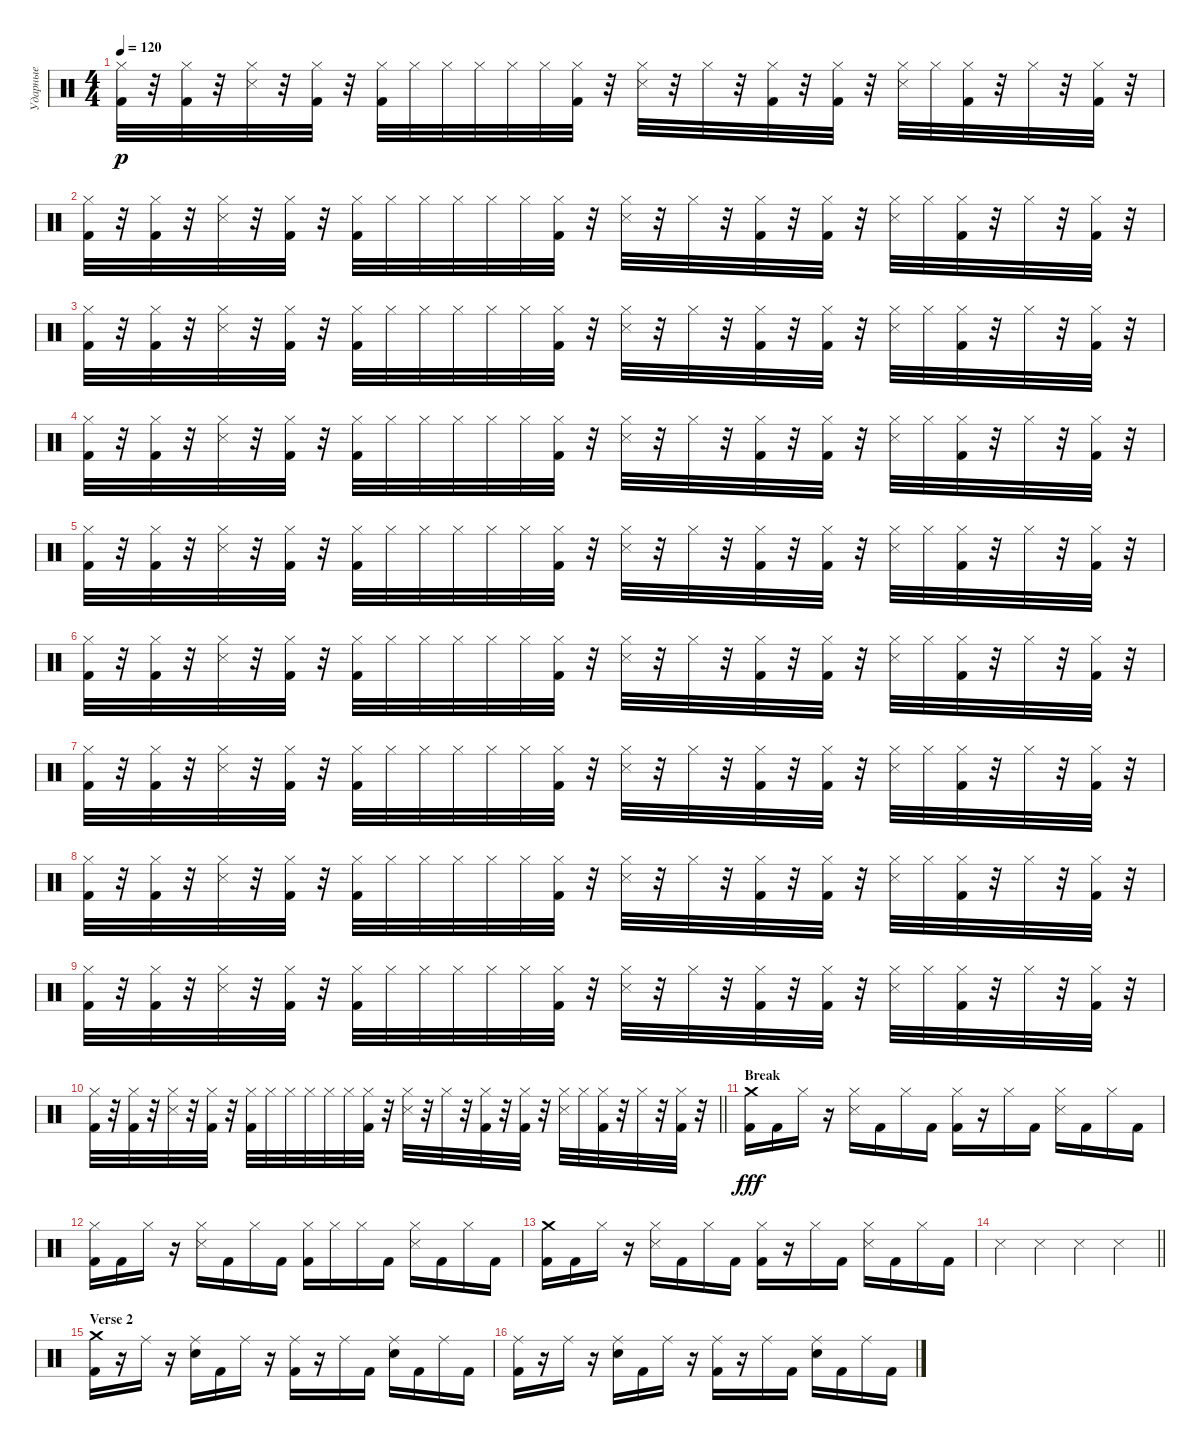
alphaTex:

\track ("Ударные" "Ударные") {instrument percussion}
\staff {score}
\articulation defaults
\ts (4 4)
\tempo 120
\clef neutral
\ks c
("Hi-Hat (closed)" "Kick (hit) 2").32{dy p} r.32 ("Hi-Hat (closed)" "Kick (hit) 2").32 r.32 ("Hi-Hat (closed)" "Metronome (hit)").32 r.32 ("Hi-Hat (closed)" "Kick (hit) 2").32 r.32 ("Hi-Hat (closed)" "Kick (hit) 2").32 "Hi-Hat (closed)".32 "Hi-Hat (closed)".32 "Hi-Hat (closed)".32 "Hi-Hat (closed)".32 "Hi-Hat (closed)".32 ("Hi-Hat (closed)" "Kick (hit) 2").32 r.32 ("Hi-Hat (closed)" "Metronome (hit)").32 r.32 "Hi-Hat (closed)".32 r.32 ("Hi-Hat (closed)" "Kick (hit) 2").32 r.32 ("Hi-Hat (closed)" "Kick (hit) 2").32 r.32 ("Hi-Hat (closed)" "Metronome (hit)").32 "Hi-Hat (closed)".32 ("Hi-Hat (closed)" "Kick (hit) 2").32 r.32 "Hi-Hat (closed)".32 r.32 ("Hi-Hat (closed)" "Kick (hit) 2").32 r.32 |
("Hi-Hat (closed)" "Kick (hit) 2").32 r.32 ("Hi-Hat (closed)" "Kick (hit) 2").32 r.32 ("Hi-Hat (closed)" "Metronome (hit)").32 r.32 ("Hi-Hat (closed)" "Kick (hit) 2").32 r.32 ("Hi-Hat (closed)" "Kick (hit) 2").32 "Hi-Hat (closed)".32 "Hi-Hat (closed)".32 "Hi-Hat (closed)".32 "Hi-Hat (closed)".32 "Hi-Hat (closed)".32 ("Hi-Hat (closed)" "Kick (hit) 2").32 r.32 ("Hi-Hat (closed)" "Metronome (hit)").32 r.32 "Hi-Hat (closed)".32 r.32 ("Hi-Hat (closed)" "Kick (hit) 2").32 r.32 ("Hi-Hat (closed)" "Kick (hit) 2").32 r.32 ("Hi-Hat (closed)" "Metronome (hit)").32 "Hi-Hat (closed)".32 ("Hi-Hat (closed)" "Kick (hit) 2").32 r.32 "Hi-Hat (closed)".32 r.32 ("Hi-Hat (closed)" "Kick (hit) 2").32 r.32 |
("Hi-Hat (closed)" "Kick (hit) 2").32 r.32 ("Hi-Hat (closed)" "Kick (hit) 2").32 r.32 ("Hi-Hat (closed)" "Metronome (hit)").32 r.32 ("Hi-Hat (closed)" "Kick (hit) 2").32 r.32 ("Hi-Hat (closed)" "Kick (hit) 2").32 "Hi-Hat (closed)".32 "Hi-Hat (closed)".32 "Hi-Hat (closed)".32 "Hi-Hat (closed)".32 "Hi-Hat (closed)".32 ("Hi-Hat (closed)" "Kick (hit) 2").32 r.32 ("Hi-Hat (closed)" "Metronome (hit)").32 r.32 "Hi-Hat (closed)".32 r.32 ("Hi-Hat (closed)" "Kick (hit) 2").32 r.32 ("Hi-Hat (closed)" "Kick (hit) 2").32 r.32 ("Hi-Hat (closed)" "Metronome (hit)").32 "Hi-Hat (closed)".32 ("Hi-Hat (closed)" "Kick (hit) 2").32 r.32 "Hi-Hat (closed)".32 r.32 ("Hi-Hat (closed)" "Kick (hit) 2").32 r.32 |
("Hi-Hat (closed)" "Kick (hit) 2").32 r.32 ("Hi-Hat (closed)" "Kick (hit) 2").32 r.32 ("Hi-Hat (closed)" "Metronome (hit)").32 r.32 ("Hi-Hat (closed)" "Kick (hit) 2").32 r.32 ("Hi-Hat (closed)" "Kick (hit) 2").32 "Hi-Hat (closed)".32 "Hi-Hat (closed)".32 "Hi-Hat (closed)".32 "Hi-Hat (closed)".32 "Hi-Hat (closed)".32 ("Hi-Hat (closed)" "Kick (hit) 2").32 r.32 ("Hi-Hat (closed)" "Metronome (hit)").32 r.32 "Hi-Hat (closed)".32 r.32 ("Hi-Hat (closed)" "Kick (hit) 2").32 r.32 ("Hi-Hat (closed)" "Kick (hit) 2").32 r.32 ("Hi-Hat (closed)" "Metronome (hit)").32 "Hi-Hat (closed)".32 ("Hi-Hat (closed)" "Kick (hit) 2").32 r.32 "Hi-Hat (closed)".32 r.32 ("Hi-Hat (closed)" "Kick (hit) 2").32 r.32 |
("Hi-Hat (closed)" "Kick (hit) 2").32 r.32 ("Hi-Hat (closed)" "Kick (hit) 2").32 r.32 ("Hi-Hat (closed)" "Metronome (hit)").32 r.32 ("Hi-Hat (closed)" "Kick (hit) 2").32 r.32 ("Hi-Hat (closed)" "Kick (hit) 2").32 "Hi-Hat (closed)".32 "Hi-Hat (closed)".32 "Hi-Hat (closed)".32 "Hi-Hat (closed)".32 "Hi-Hat (closed)".32 ("Hi-Hat (closed)" "Kick (hit) 2").32 r.32 ("Hi-Hat (closed)" "Metronome (hit)").32 r.32 "Hi-Hat (closed)".32 r.32 ("Hi-Hat (closed)" "Kick (hit) 2").32 r.32 ("Hi-Hat (closed)" "Kick (hit) 2").32 r.32 ("Hi-Hat (closed)" "Metronome (hit)").32 "Hi-Hat (closed)".32 ("Hi-Hat (closed)" "Kick (hit) 2").32 r.32 "Hi-Hat (closed)".32 r.32 ("Hi-Hat (closed)" "Kick (hit) 2").32 r.32 |
("Hi-Hat (closed)" "Kick (hit) 2").32 r.32 ("Hi-Hat (closed)" "Kick (hit) 2").32 r.32 ("Hi-Hat (closed)" "Metronome (hit)").32 r.32 ("Hi-Hat (closed)" "Kick (hit) 2").32 r.32 ("Hi-Hat (closed)" "Kick (hit) 2").32 "Hi-Hat (closed)".32 "Hi-Hat (closed)".32 "Hi-Hat (closed)".32 "Hi-Hat (closed)".32 "Hi-Hat (closed)".32 ("Hi-Hat (closed)" "Kick (hit) 2").32 r.32 ("Hi-Hat (closed)" "Metronome (hit)").32 r.32 "Hi-Hat (closed)".32 r.32 ("Hi-Hat (closed)" "Kick (hit) 2").32 r.32 ("Hi-Hat (closed)" "Kick (hit) 2").32 r.32 ("Hi-Hat (closed)" "Metronome (hit)").32 "Hi-Hat (closed)".32 ("Hi-Hat (closed)" "Kick (hit) 2").32 r.32 "Hi-Hat (closed)".32 r.32 ("Hi-Hat (closed)" "Kick (hit) 2").32 r.32 |
("Hi-Hat (closed)" "Kick (hit) 2").32 r.32 ("Hi-Hat (closed)" "Kick (hit) 2").32 r.32 ("Hi-Hat (closed)" "Metronome (hit)").32 r.32 ("Hi-Hat (closed)" "Kick (hit) 2").32 r.32 ("Hi-Hat (closed)" "Kick (hit) 2").32 "Hi-Hat (closed)".32 "Hi-Hat (closed)".32 "Hi-Hat (closed)".32 "Hi-Hat (closed)".32 "Hi-Hat (closed)".32 ("Hi-Hat (closed)" "Kick (hit) 2").32 r.32 ("Hi-Hat (closed)" "Metronome (hit)").32 r.32 "Hi-Hat (closed)".32 r.32 ("Hi-Hat (closed)" "Kick (hit) 2").32 r.32 ("Hi-Hat (closed)" "Kick (hit) 2").32 r.32 ("Hi-Hat (closed)" "Metronome (hit)").32 "Hi-Hat (closed)".32 ("Hi-Hat (closed)" "Kick (hit) 2").32 r.32 "Hi-Hat (closed)".32 r.32 ("Hi-Hat (closed)" "Kick (hit) 2").32 r.32 |
("Hi-Hat (closed)" "Kick (hit) 2").32 r.32 ("Hi-Hat (closed)" "Kick (hit) 2").32 r.32 ("Hi-Hat (closed)" "Metronome (hit)").32 r.32 ("Hi-Hat (closed)" "Kick (hit) 2").32 r.32 ("Hi-Hat (closed)" "Kick (hit) 2").32 "Hi-Hat (closed)".32 "Hi-Hat (closed)".32 "Hi-Hat (closed)".32 "Hi-Hat (closed)".32 "Hi-Hat (closed)".32 ("Hi-Hat (closed)" "Kick (hit) 2").32 r.32 ("Hi-Hat (closed)" "Metronome (hit)").32 r.32 "Hi-Hat (closed)".32 r.32 ("Hi-Hat (closed)" "Kick (hit) 2").32 r.32 ("Hi-Hat (closed)" "Kick (hit) 2").32 r.32 ("Hi-Hat (closed)" "Metronome (hit)").32 "Hi-Hat (closed)".32 ("Hi-Hat (closed)" "Kick (hit) 2").32 r.32 "Hi-Hat (closed)".32 r.32 ("Hi-Hat (closed)" "Kick (hit) 2").32 r.32 |
("Hi-Hat (closed)" "Kick (hit) 2").32 r.32 ("Hi-Hat (closed)" "Kick (hit) 2").32 r.32 ("Hi-Hat (closed)" "Metronome (hit)").32 r.32 ("Hi-Hat (closed)" "Kick (hit) 2").32 r.32 ("Hi-Hat (closed)" "Kick (hit) 2").32 "Hi-Hat (closed)".32 "Hi-Hat (closed)".32 "Hi-Hat (closed)".32 "Hi-Hat (closed)".32 "Hi-Hat (closed)".32 ("Hi-Hat (closed)" "Kick (hit) 2").32 r.32 ("Hi-Hat (closed)" "Metronome (hit)").32 r.32 "Hi-Hat (closed)".32 r.32 ("Hi-Hat (closed)" "Kick (hit) 2").32 r.32 ("Hi-Hat (closed)" "Kick (hit) 2").32 r.32 ("Hi-Hat (closed)" "Metronome (hit)").32 "Hi-Hat (closed)".32 ("Hi-Hat (closed)" "Kick (hit) 2").32 r.32 "Hi-Hat (closed)".32 r.32 ("Hi-Hat (closed)" "Kick (hit) 2").32 r.32 |
\barLineRight lightlight
("Hi-Hat (closed)" "Kick (hit) 2").32 r.32 ("Hi-Hat (closed)" "Kick (hit) 2").32 r.32 ("Hi-Hat (closed)" "Metronome (hit)").32 r.32 ("Hi-Hat (closed)" "Kick (hit) 2").32 r.32 ("Hi-Hat (closed)" "Kick (hit) 2").32 "Hi-Hat (closed)".32 "Hi-Hat (closed)".32 "Hi-Hat (closed)".32 "Hi-Hat (closed)".32 "Hi-Hat (closed)".32 ("Hi-Hat (closed)" "Kick (hit) 2").32 r.32 ("Hi-Hat (closed)" "Metronome (hit)").32 r.32 "Hi-Hat (closed)".32 r.32 ("Hi-Hat (closed)" "Kick (hit) 2").32 r.32 ("Hi-Hat (closed)" "Kick (hit) 2").32 r.32 ("Hi-Hat (closed)" "Metronome (hit)").32 "Hi-Hat (closed)".32 ("Hi-Hat (closed)" "Kick (hit) 2").32 r.32 "Hi-Hat (closed)".32 r.32 ("Hi-Hat (closed)" "Kick (hit) 2").32 r.32 |
\section ("" "Break")
("Crash medium (hit)" "Kick (hit) 2").16{dy fff} "Kick (hit) 2".16 "Hi-Hat (closed)".16 r.16 ("Hi-Hat (closed)" "Metronome (hit)").16 "Kick (hit) 2".16 "Hi-Hat (closed)".16 "Kick (hit) 2".16 ("Hi-Hat (closed)" "Kick (hit) 2").16 r.16 "Hi-Hat (closed)".16 "Kick (hit) 2".16 ("Hi-Hat (closed)" "Metronome (hit)").16 "Kick (hit) 2".16 "Hi-Hat (closed)".16 "Kick (hit) 2".16 |
("Hi-Hat (closed)" "Kick (hit) 2").16 "Kick (hit) 2".16 "Hi-Hat (closed)".16 r.16 ("Hi-Hat (closed)" "Metronome (hit)").16 "Kick (hit) 2".16 "Hi-Hat (closed)".16 "Kick (hit) 2".16 ("Hi-Hat (closed)" "Kick (hit) 2").16 "Hi-Hat (closed)".16 "Hi-Hat (closed)".16 "Kick (hit) 2".16 ("Hi-Hat (closed)" "Metronome (hit)").16 "Kick (hit) 2".16 "Hi-Hat (closed)".16 "Kick (hit) 2".16 |
("Crash medium (hit)" "Kick (hit) 2").16 "Kick (hit) 2".16 "Hi-Hat (closed)".16 r.16 ("Hi-Hat (closed)" "Metronome (hit)").16 "Kick (hit) 2".16 "Hi-Hat (closed)".16 "Kick (hit) 2".16 ("Hi-Hat (closed)" "Kick (hit) 2").16 r.16 "Hi-Hat (closed)".16 "Kick (hit) 2".16 ("Hi-Hat (closed)" "Metronome (hit)").16 "Kick (hit) 2".16 "Hi-Hat (closed)".16 "Kick (hit) 2".16 |
\barLineRight lightlight "Metronome (hit)".4 "Metronome (hit)".4 "Metronome (hit)".4 "Metronome (hit)".4
|
\section ("" "Verse 2")
("Crash medium (hit)" "Kick (hit) 2").16 r.16 "Ride (middle)".16 r.16 ("Ride (middle)" "Electric Snare (hit)").16 "Kick (hit) 2".16 "Ride (middle)".16 r.16 ("Ride (middle)" "Kick (hit) 2").16 r.16 "Ride (middle)".16 "Kick (hit) 2".16 ("Ride (middle)" "Electric Snare (hit)").16 "Kick (hit) 2".16 "Ride (middle)".16 "Kick (hit) 2".16 |
("Ride (middle)" "Kick (hit) 2").16 r.16 "Ride (middle)".16 r.16 ("Ride (middle)" "Electric Snare (hit)").16 "Kick (hit) 2".16 "Ride (middle)".16 r.16 ("Ride (middle)" "Kick (hit) 2").16 r.16 "Ride (middle)".16 "Kick (hit) 2".16 ("Ride (middle)" "Electric Snare (hit)").16 "Kick (hit) 2".16 "Ride (middle)".16 "Kick (hit) 2".16
